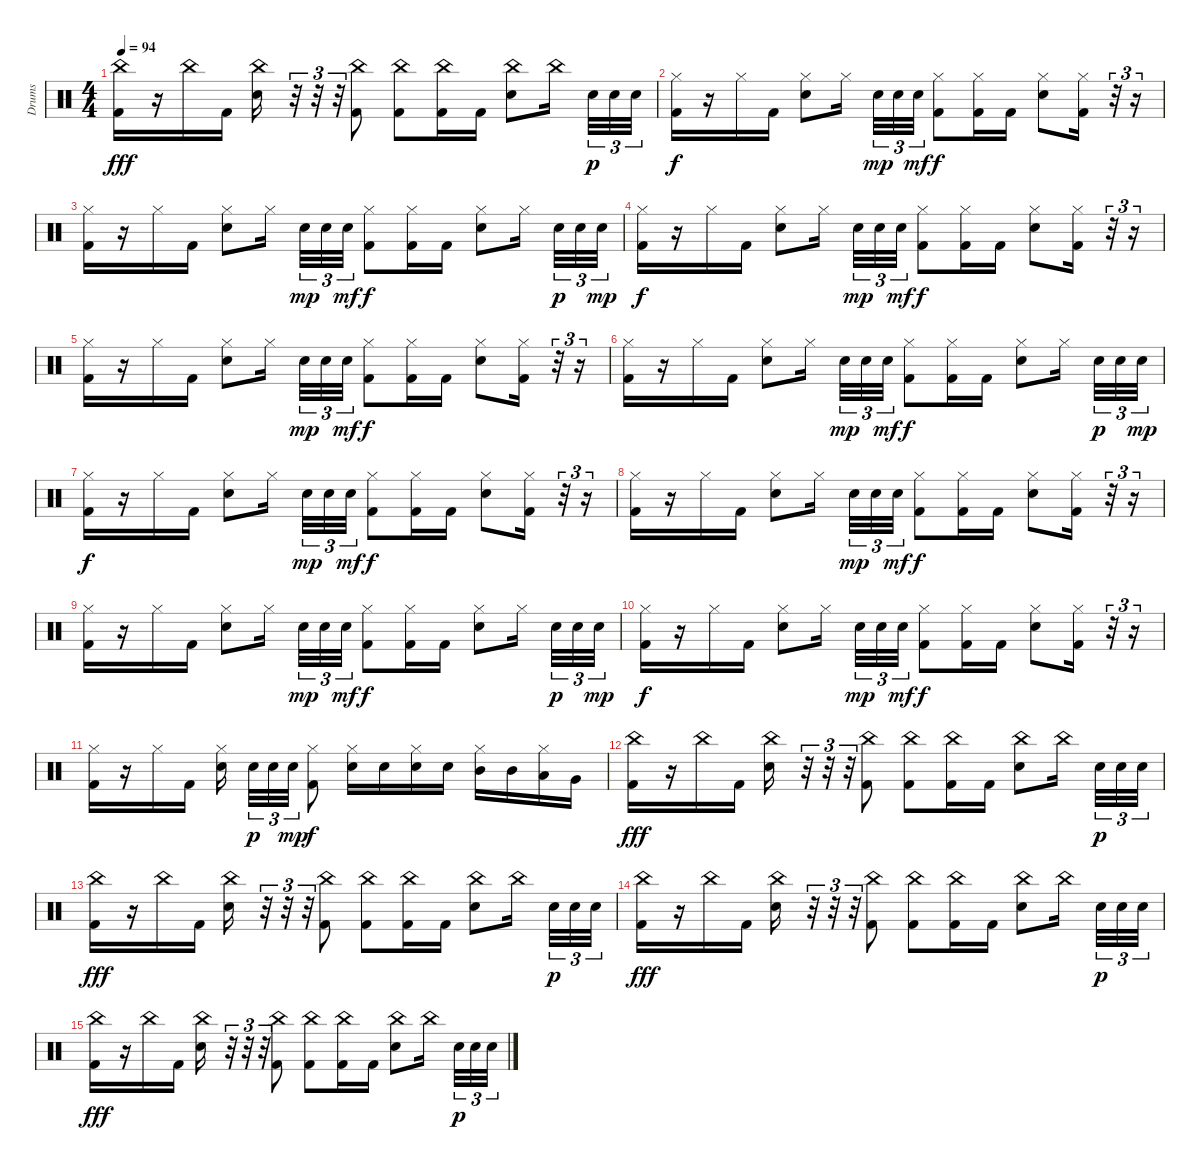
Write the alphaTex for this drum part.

\track ("Drums" "Drums") {instrument percussion}
\staff {score}
\articulation defaults
\ts (4 4)
\tempo 94
\clef neutral
\ks c
("China (hit)" "Kick (hit) 2").16{dy fff} r.16 "China (hit)".16 "Kick (hit) 2".16 ("China (hit)" "Electric Snare (hit)").16 r.32{tu (3 2)} r.32{tu (3 2)} r.32{tu (3 2)} ("China (hit)" "Kick (hit) 2").8 ("China (hit)" "Kick (hit) 2").8 ("China (hit)" "Kick (hit) 2").16 "Kick (hit) 2".16 ("China (hit)" "Electric Snare (hit)").8 "China (hit)".16 "Electric Snare (hit)".32{tu (3 2) dy p} "Electric Snare (hit)".32{tu (3 2)} "Electric Snare (hit)".32{tu (3 2)} |
("Hi-Hat (closed)" "Kick (hit) 2").16{dy f} r.16 "Hi-Hat (closed)".16 "Kick (hit) 2".16 ("Hi-Hat (closed)" "Electric Snare (hit)").8 "Hi-Hat (closed)".16 "Electric Snare (hit)".32{tu (3 2) dy mp} "Electric Snare (hit)".32{tu (3 2)} "Electric Snare (hit)".32{tu (3 2) dy mf} ("Hi-Hat (closed)" "Kick (hit) 2").8{dy f} ("Hi-Hat (closed)" "Kick (hit) 2").16 "Kick (hit) 2".16 ("Hi-Hat (closed)" "Electric Snare (hit)").8 ("Hi-Hat (closed)" "Kick (hit) 2").16 r.32{tu (3 2)} r.16{tu (3 2)} |
("Hi-Hat (closed)" "Kick (hit) 2").16 r.16 "Hi-Hat (closed)".16 "Kick (hit) 2".16 ("Hi-Hat (closed)" "Electric Snare (hit)").8 "Hi-Hat (closed)".16 "Electric Snare (hit)".32{tu (3 2) dy mp} "Electric Snare (hit)".32{tu (3 2)} "Electric Snare (hit)".32{tu (3 2) dy mf} ("Hi-Hat (closed)" "Kick (hit) 2").8{dy f} ("Hi-Hat (closed)" "Kick (hit) 2").16 "Kick (hit) 2".16 ("Hi-Hat (closed)" "Electric Snare (hit)").8 "Hi-Hat (closed)".16 "Electric Snare (hit)".32{tu (3 2) dy p} "Electric Snare (hit)".32{tu (3 2)} "Electric Snare (hit)".32{tu (3 2) dy mp} |
("Hi-Hat (closed)" "Kick (hit) 2").16{dy f} r.16 "Hi-Hat (closed)".16 "Kick (hit) 2".16 ("Hi-Hat (closed)" "Electric Snare (hit)").8 "Hi-Hat (closed)".16 "Electric Snare (hit)".32{tu (3 2) dy mp} "Electric Snare (hit)".32{tu (3 2)} "Electric Snare (hit)".32{tu (3 2) dy mf} ("Hi-Hat (closed)" "Kick (hit) 2").8{dy f} ("Hi-Hat (closed)" "Kick (hit) 2").16 "Kick (hit) 2".16 ("Hi-Hat (closed)" "Electric Snare (hit)").8 ("Hi-Hat (closed)" "Kick (hit) 2").16 r.32{tu (3 2)} r.16{tu (3 2)} |
("Hi-Hat (closed)" "Kick (hit) 2").16 r.16 "Hi-Hat (closed)".16 "Kick (hit) 2".16 ("Hi-Hat (closed)" "Electric Snare (hit)").8 "Hi-Hat (closed)".16 "Electric Snare (hit)".32{tu (3 2) dy mp} "Electric Snare (hit)".32{tu (3 2)} "Electric Snare (hit)".32{tu (3 2) dy mf} ("Hi-Hat (closed)" "Kick (hit) 2").8{dy f} ("Hi-Hat (closed)" "Kick (hit) 2").16 "Kick (hit) 2".16 ("Hi-Hat (closed)" "Electric Snare (hit)").8 ("Hi-Hat (closed)" "Kick (hit) 2").16 r.32{tu (3 2)} r.16{tu (3 2)} |
("Hi-Hat (closed)" "Kick (hit) 2").16 r.16 "Hi-Hat (closed)".16 "Kick (hit) 2".16 ("Hi-Hat (closed)" "Electric Snare (hit)").8 "Hi-Hat (closed)".16 "Electric Snare (hit)".32{tu (3 2) dy mp} "Electric Snare (hit)".32{tu (3 2)} "Electric Snare (hit)".32{tu (3 2) dy mf} ("Hi-Hat (closed)" "Kick (hit) 2").8{dy f} ("Hi-Hat (closed)" "Kick (hit) 2").16 "Kick (hit) 2".16 ("Hi-Hat (closed)" "Electric Snare (hit)").8 "Hi-Hat (closed)".16 "Electric Snare (hit)".32{tu (3 2) dy p} "Electric Snare (hit)".32{tu (3 2)} "Electric Snare (hit)".32{tu (3 2) dy mp} |
("Hi-Hat (closed)" "Kick (hit) 2").16{dy f} r.16 "Hi-Hat (closed)".16 "Kick (hit) 2".16 ("Hi-Hat (closed)" "Electric Snare (hit)").8 "Hi-Hat (closed)".16 "Electric Snare (hit)".32{tu (3 2) dy mp} "Electric Snare (hit)".32{tu (3 2)} "Electric Snare (hit)".32{tu (3 2) dy mf} ("Hi-Hat (closed)" "Kick (hit) 2").8{dy f} ("Hi-Hat (closed)" "Kick (hit) 2").16 "Kick (hit) 2".16 ("Hi-Hat (closed)" "Electric Snare (hit)").8 ("Hi-Hat (closed)" "Kick (hit) 2").16 r.32{tu (3 2)} r.16{tu (3 2)} |
("Hi-Hat (closed)" "Kick (hit) 2").16 r.16 "Hi-Hat (closed)".16 "Kick (hit) 2".16 ("Hi-Hat (closed)" "Electric Snare (hit)").8 "Hi-Hat (closed)".16 "Electric Snare (hit)".32{tu (3 2) dy mp} "Electric Snare (hit)".32{tu (3 2)} "Electric Snare (hit)".32{tu (3 2) dy mf} ("Hi-Hat (closed)" "Kick (hit) 2").8{dy f} ("Hi-Hat (closed)" "Kick (hit) 2").16 "Kick (hit) 2".16 ("Hi-Hat (closed)" "Electric Snare (hit)").8 ("Hi-Hat (closed)" "Kick (hit) 2").16 r.32{tu (3 2)} r.16{tu (3 2)} |
("Hi-Hat (closed)" "Kick (hit) 2").16 r.16 "Hi-Hat (closed)".16 "Kick (hit) 2".16 ("Hi-Hat (closed)" "Electric Snare (hit)").8 "Hi-Hat (closed)".16 "Electric Snare (hit)".32{tu (3 2) dy mp} "Electric Snare (hit)".32{tu (3 2)} "Electric Snare (hit)".32{tu (3 2) dy mf} ("Hi-Hat (closed)" "Kick (hit) 2").8{dy f} ("Hi-Hat (closed)" "Kick (hit) 2").16 "Kick (hit) 2".16 ("Hi-Hat (closed)" "Electric Snare (hit)").8 "Hi-Hat (closed)".16 "Electric Snare (hit)".32{tu (3 2) dy p} "Electric Snare (hit)".32{tu (3 2)} "Electric Snare (hit)".32{tu (3 2) dy mp} |
("Hi-Hat (closed)" "Kick (hit) 2").16{dy f} r.16 "Hi-Hat (closed)".16 "Kick (hit) 2".16 ("Hi-Hat (closed)" "Electric Snare (hit)").8 "Hi-Hat (closed)".16 "Electric Snare (hit)".32{tu (3 2) dy mp} "Electric Snare (hit)".32{tu (3 2)} "Electric Snare (hit)".32{tu (3 2) dy mf} ("Hi-Hat (closed)" "Kick (hit) 2").8{dy f} ("Hi-Hat (closed)" "Kick (hit) 2").16 "Kick (hit) 2".16 ("Hi-Hat (closed)" "Electric Snare (hit)").8 ("Hi-Hat (closed)" "Kick (hit) 2").16 r.32{tu (3 2)} r.16{tu (3 2)} |
("Hi-Hat (closed)" "Kick (hit) 2").16 r.16 "Hi-Hat (closed)".16 "Kick (hit) 2".16 ("Hi-Hat (closed)" "Electric Snare (hit)").16 "Electric Snare (hit)".32{tu (3 2) dy p} "Electric Snare (hit)".32{tu (3 2)} "Electric Snare (hit)".32{tu (3 2) dy mp} ("Hi-Hat (closed)" "Kick (hit) 2").8{dy f} ("Hi-Hat (closed)" "Electric Snare (hit)").16 "Electric Snare (hit)".16 ("Hi-Hat (closed)" "Electric Snare (hit)").16 "Electric Snare (hit)".16 ("Hi-Hat (closed)" "Mid Tom (hit)").16 "Mid Tom (hit)".16 ("Hi-Hat (closed)" "Low Tom (hit)").16 "Very Low Tom (hit)".16 |
("China (hit)" "Kick (hit) 2").16{dy fff} r.16 "China (hit)".16 "Kick (hit) 2".16 ("China (hit)" "Electric Snare (hit)").16 r.32{tu (3 2)} r.32{tu (3 2)} r.32{tu (3 2)} ("China (hit)" "Kick (hit) 2").8 ("China (hit)" "Kick (hit) 2").8 ("China (hit)" "Kick (hit) 2").16 "Kick (hit) 2".16 ("China (hit)" "Electric Snare (hit)").8 "China (hit)".16 "Electric Snare (hit)".32{tu (3 2) dy p} "Electric Snare (hit)".32{tu (3 2)} "Electric Snare (hit)".32{tu (3 2)} |
("China (hit)" "Kick (hit) 2").16{dy fff} r.16 "China (hit)".16 "Kick (hit) 2".16 ("China (hit)" "Electric Snare (hit)").16 r.32{tu (3 2)} r.32{tu (3 2)} r.32{tu (3 2)} ("China (hit)" "Kick (hit) 2").8 ("China (hit)" "Kick (hit) 2").8 ("China (hit)" "Kick (hit) 2").16 "Kick (hit) 2".16 ("China (hit)" "Electric Snare (hit)").8 "China (hit)".16 "Electric Snare (hit)".32{tu (3 2) dy p} "Electric Snare (hit)".32{tu (3 2)} "Electric Snare (hit)".32{tu (3 2)} |
("China (hit)" "Kick (hit) 2").16{dy fff} r.16 "China (hit)".16 "Kick (hit) 2".16 ("China (hit)" "Electric Snare (hit)").16 r.32{tu (3 2)} r.32{tu (3 2)} r.32{tu (3 2)} ("China (hit)" "Kick (hit) 2").8 ("China (hit)" "Kick (hit) 2").8 ("China (hit)" "Kick (hit) 2").16 "Kick (hit) 2".16 ("China (hit)" "Electric Snare (hit)").8 "China (hit)".16 "Electric Snare (hit)".32{tu (3 2) dy p} "Electric Snare (hit)".32{tu (3 2)} "Electric Snare (hit)".32{tu (3 2)} |
("China (hit)" "Kick (hit) 2").16{dy fff} r.16 "China (hit)".16 "Kick (hit) 2".16 ("China (hit)" "Electric Snare (hit)").16 r.32{tu (3 2)} r.32{tu (3 2)} r.32{tu (3 2)} ("China (hit)" "Kick (hit) 2").8 ("China (hit)" "Kick (hit) 2").8 ("China (hit)" "Kick (hit) 2").16 "Kick (hit) 2".16 ("China (hit)" "Electric Snare (hit)").8 "China (hit)".16 "Electric Snare (hit)".32{tu (3 2) dy p} "Electric Snare (hit)".32{tu (3 2)} "Electric Snare (hit)".32{tu (3 2)}
